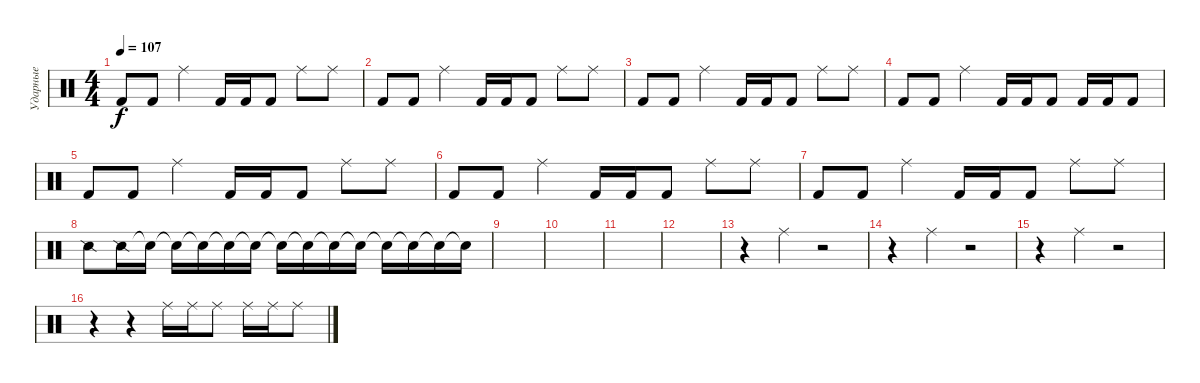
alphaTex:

\track ("Ударные" "Ударные") {instrument percussion}
\staff {score}
\articulation defaults
\ts (4 4)
\tempo 107
\clef neutral
\ks c "Kick (hit) 2".8{dy f} "Kick (hit) 2".8 "Ride (middle)".4 "Kick (hit) 2".16 "Kick (hit) 2".16 "Kick (hit) 2".8 "Ride (middle)".8 "Ride (middle)".8
|
"Kick (hit) 2".8 "Kick (hit) 2".8 "Ride (middle)".4 "Kick (hit) 2".16 "Kick (hit) 2".16 "Kick (hit) 2".8 "Ride (middle)".8 "Ride (middle)".8 |
"Kick (hit) 2".8 "Kick (hit) 2".8 "Ride (middle)".4 "Kick (hit) 2".16 "Kick (hit) 2".16 "Kick (hit) 2".8 "Ride (middle)".8 "Ride (middle)".8 |
"Kick (hit) 2".8 "Kick (hit) 2".8 "Ride (middle)".4 "Kick (hit) 2".16 "Kick (hit) 2".16 "Kick (hit) 2".8 "Kick (hit) 2".16 "Kick (hit) 2".16 "Kick (hit) 2".8 |
"Kick (hit) 2".8 "Kick (hit) 2".8 "Ride (middle)".4 "Kick (hit) 2".16 "Kick (hit) 2".16 "Kick (hit) 2".8 "Ride (middle)".8 "Ride (middle)".8 |
"Kick (hit) 2".8 "Kick (hit) 2".8 "Ride (middle)".4 "Kick (hit) 2".16 "Kick (hit) 2".16 "Kick (hit) 2".8 "Ride (middle)".8 "Ride (middle)".8 |
"Kick (hit) 2".8 "Kick (hit) 2".8 "Ride (middle)".4 "Kick (hit) 2".16 "Kick (hit) 2".16 "Kick (hit) 2".8 "Ride (middle)".8 "Ride (middle)".8 |
"Snare (side stick) 2".8 "Snare (side stick) 2".16 "Snare (hit)"{t}.16 "Snare (hit)"{t}.16 "Snare (hit)"{t}.16 "Snare (hit)"{t}.16 "Snare (hit)"{t}.16 "Snare (hit)"{t}.16 "Snare (hit)"{t}.16 "Snare (hit)"{t}.16 "Snare (hit)"{t}.16 "Snare (hit)"{t}.16 "Snare (hit)"{t}.16 "Snare (hit)"{t}.16 "Snare (hit)"{t}.16 |
|
|
|
|
r.4 "Ride (middle)".4{volume 16} r.2 |
r.4 "Ride (middle)".4 r.2 |
r.4 "Ride (middle)".4 r.2 |
r.4 r.4 "Ride (middle)".16 "Ride (middle)".16 "Ride (middle)".8 "Ride (middle)".16 "Ride (middle)".16 "Ride (middle)".8
